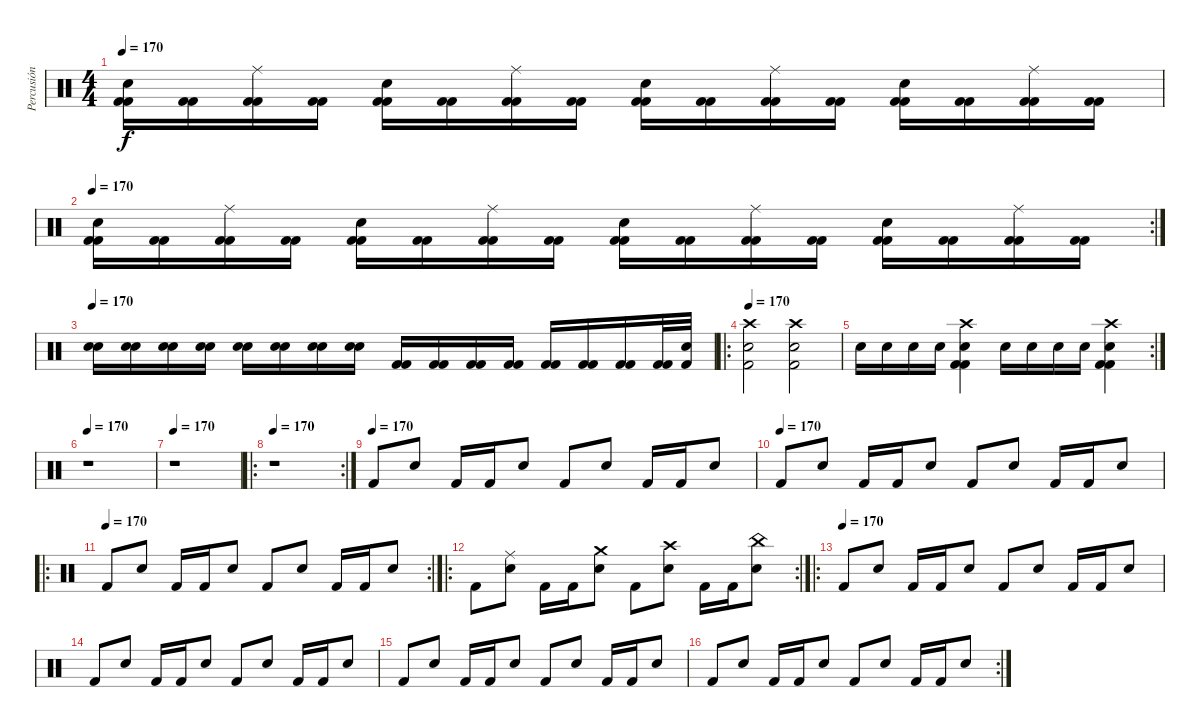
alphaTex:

\track ("Percusión" "Percusión") {instrument percussion}
\staff {score}
\articulation defaults
\ts (4 4)
\tempo 170
\clef neutral
\ks c
("Electric Snare (hit)" "Kick (hit) 2" "Kick (hit) 2").16{dy f} ("Kick (hit) 2" "Kick (hit) 2").16 ("Ride (middle)" "Kick (hit) 2" "Kick (hit) 2").16 ("Kick (hit) 2" "Kick (hit) 2").16 ("Electric Snare (hit)" "Kick (hit) 2" "Kick (hit) 2").16 ("Kick (hit) 2" "Kick (hit) 2").16 ("Ride (middle)" "Kick (hit) 2" "Kick (hit) 2").16 ("Kick (hit) 2" "Kick (hit) 2").16 ("Electric Snare (hit)" "Kick (hit) 2" "Kick (hit) 2").16 ("Kick (hit) 2" "Kick (hit) 2").16 ("Ride (middle)" "Kick (hit) 2" "Kick (hit) 2").16 ("Kick (hit) 2" "Kick (hit) 2").16 ("Electric Snare (hit)" "Kick (hit) 2" "Kick (hit) 2").16 ("Kick (hit) 2" "Kick (hit) 2").16 ("Ride (middle)" "Kick (hit) 2" "Kick (hit) 2").16 ("Kick (hit) 2" "Kick (hit) 2").16 |
\rc 2
\tempo 170
("Electric Snare (hit)" "Kick (hit) 2" "Kick (hit) 2").16 ("Kick (hit) 2" "Kick (hit) 2").16 ("Ride (middle)" "Kick (hit) 2" "Kick (hit) 2").16 ("Kick (hit) 2" "Kick (hit) 2").16 ("Electric Snare (hit)" "Kick (hit) 2" "Kick (hit) 2").16 ("Kick (hit) 2" "Kick (hit) 2").16 ("Ride (middle)" "Kick (hit) 2" "Kick (hit) 2").16 ("Kick (hit) 2" "Kick (hit) 2").16 ("Electric Snare (hit)" "Kick (hit) 2" "Kick (hit) 2").16 ("Kick (hit) 2" "Kick (hit) 2").16 ("Ride (middle)" "Kick (hit) 2" "Kick (hit) 2").16 ("Kick (hit) 2" "Kick (hit) 2").16 ("Electric Snare (hit)" "Kick (hit) 2" "Kick (hit) 2").16 ("Kick (hit) 2" "Kick (hit) 2").16 ("Ride (middle)" "Kick (hit) 2" "Kick (hit) 2").16 ("Kick (hit) 2" "Kick (hit) 2").16 |
\tempo 170
("Electric Snare (hit)" "Snare (hit) 2").16 ("Electric Snare (hit)" "Snare (hit) 2").16 ("Electric Snare (hit)" "Snare (hit) 2").16 ("Electric Snare (hit)" "Snare (hit) 2").16 ("Electric Snare (hit)" "Snare (hit) 2").16 ("Electric Snare (hit)" "Snare (hit) 2").16 ("Electric Snare (hit)" "Snare (hit) 2").16 ("Electric Snare (hit)" "Snare (hit) 2").16 ("Kick (hit) 2" "Kick (hit) 2").16 ("Kick (hit) 2" "Kick (hit) 2").16 ("Kick (hit) 2" "Kick (hit) 2").16 ("Kick (hit) 2" "Kick (hit) 2").16 ("Kick (hit) 2" "Kick (hit) 2").16 ("Kick (hit) 2" "Kick (hit) 2").16 ("Kick (hit) 2" "Kick (hit) 2").16 ("Kick (hit) 2" "Kick (hit) 2").32 ("Snare (hit) 2" "Kick (hit) 2").32 |
\ro
\tempo 170
("Crash high (hit)" "Electric Snare (hit)" "Kick (hit) 2").2 ("Crash high (hit)" "Electric Snare (hit)" "Kick (hit) 2").2 |
\rc 2 "Snare (hit) 2".16 "Snare (hit) 2".16 "Snare (hit) 2".16 "Snare (hit) 2".16
("Electric Snare (hit)" "Crash high (hit)" "Kick (hit) 2" "Kick (hit) 2").4 "Snare (hit) 2".16 "Snare (hit) 2".16 "Snare (hit) 2".16 "Snare (hit) 2".16 ("Crash high (hit)" "Electric Snare (hit)" "Kick (hit) 2" "Kick (hit) 2").4 |
\tempo 170
r.1 |
\tempo 170
r.1 |
\ro
\rc 2
\tempo 170
r.1 |
\tempo (170)
"Kick (hit) 2".8 "Snare (hit) 2".8 "Kick (hit) 2".16 "Kick (hit) 2".16 "Snare (hit) 2".8 "Kick (hit) 2".8 "Snare (hit) 2".8 "Kick (hit) 2".16 "Kick (hit) 2".16 "Snare (hit) 2".8 |
\tempo (170)
"Kick (hit) 2".8 "Snare (hit) 2".8 "Kick (hit) 2".16 "Kick (hit) 2".16 "Snare (hit) 2".8 "Kick (hit) 2".8 "Snare (hit) 2".8 "Kick (hit) 2".16 "Kick (hit) 2".16 "Snare (hit) 2".8 |
\ro
\rc 2
\tempo (170)
"Kick (hit) 2".8 "Snare (hit) 2".8 "Kick (hit) 2".16 "Kick (hit) 2".16 "Snare (hit) 2".8 "Kick (hit) 2".8 "Snare (hit) 2".8 "Kick (hit) 2".16 "Kick (hit) 2".16 "Snare (hit) 2".8 |
\ro
\rc 2 "Kick (hit) 2".8
("Ride (middle)" "Snare (hit) 2").8 "Kick (hit) 2".16 "Kick (hit) 2".16 ("Crash medium (hit)" "Snare (hit) 2").8 "Kick (hit) 2".8 ("Crash high (hit)" "Snare (hit) 2").8 "Kick (hit) 2".16 "Kick (hit) 2".16 ("China (hit)" "Snare (hit) 2").8 |
\ro
\tempo (170)
"Kick (hit) 2".8 "Snare (hit) 2".8 "Kick (hit) 2".16 "Kick (hit) 2".16 "Snare (hit) 2".8 "Kick (hit) 2".8 "Snare (hit) 2".8 "Kick (hit) 2".16 "Kick (hit) 2".16 "Snare (hit) 2".8 |
"Kick (hit) 2".8 "Snare (hit) 2".8 "Kick (hit) 2".16 "Kick (hit) 2".16 "Snare (hit) 2".8 "Kick (hit) 2".8 "Snare (hit) 2".8 "Kick (hit) 2".16 "Kick (hit) 2".16 "Snare (hit) 2".8 |
"Kick (hit) 2".8 "Snare (hit) 2".8 "Kick (hit) 2".16 "Kick (hit) 2".16 "Snare (hit) 2".8 "Kick (hit) 2".8 "Snare (hit) 2".8 "Kick (hit) 2".16 "Kick (hit) 2".16 "Snare (hit) 2".8 |
\rc 2 "Kick (hit) 2".8 "Snare (hit) 2".8 "Kick (hit) 2".16 "Kick (hit) 2".16 "Snare (hit) 2".8 "Kick (hit) 2".8 "Snare (hit) 2".8 "Kick (hit) 2".16 "Kick (hit) 2".16 "Snare (hit) 2".8
